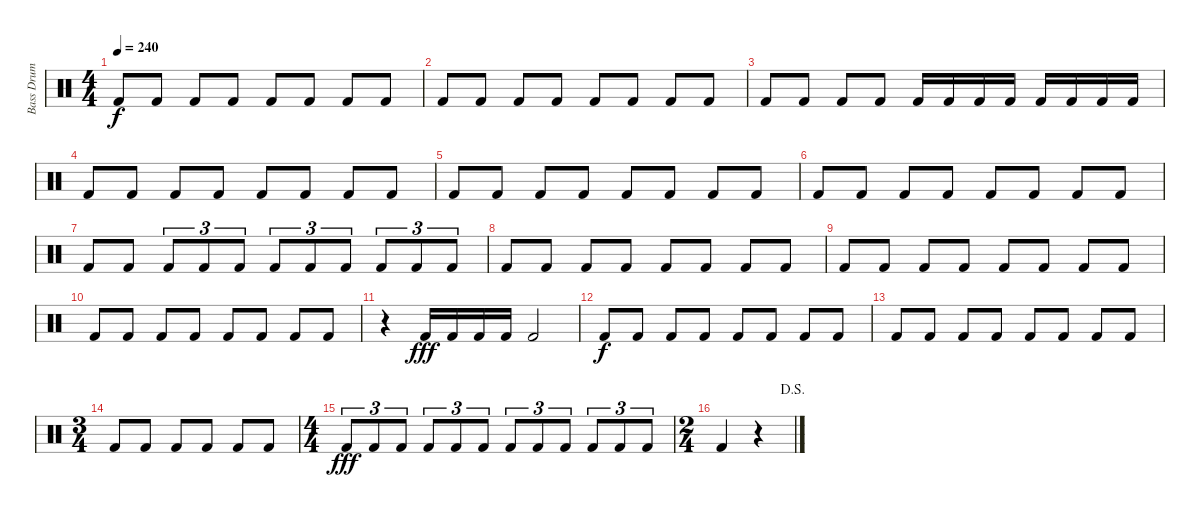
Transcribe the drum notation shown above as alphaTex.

\track ("Bass Drum" "Bass Drum") {instrument percussion}
\staff {score}
\articulation defaults
\ts (4 4)
\tempo 240
\clef neutral
\ks c "Kick (hit) 2".8{dy f} "Kick (hit) 2".8 "Kick (hit) 2".8 "Kick (hit) 2".8 "Kick (hit) 2".8 "Kick (hit) 2".8 "Kick (hit) 2".8 "Kick (hit) 2".8
|
"Kick (hit) 2".8 "Kick (hit) 2".8 "Kick (hit) 2".8 "Kick (hit) 2".8 "Kick (hit) 2".8 "Kick (hit) 2".8 "Kick (hit) 2".8 "Kick (hit) 2".8 |
"Kick (hit) 2".8 "Kick (hit) 2".8 "Kick (hit) 2".8 "Kick (hit) 2".8 "Kick (hit) 2".16 "Kick (hit) 2".16 "Kick (hit) 2".16 "Kick (hit) 2".16 "Kick (hit) 2".16 "Kick (hit) 2".16 "Kick (hit) 2".16 "Kick (hit) 2".16 |
"Kick (hit) 2".8 "Kick (hit) 2".8 "Kick (hit) 2".8 "Kick (hit) 2".8 "Kick (hit) 2".8 "Kick (hit) 2".8 "Kick (hit) 2".8 "Kick (hit) 2".8 |
"Kick (hit) 2".8 "Kick (hit) 2".8 "Kick (hit) 2".8 "Kick (hit) 2".8 "Kick (hit) 2".8 "Kick (hit) 2".8 "Kick (hit) 2".8 "Kick (hit) 2".8 |
"Kick (hit) 2".8 "Kick (hit) 2".8 "Kick (hit) 2".8 "Kick (hit) 2".8 "Kick (hit) 2".8 "Kick (hit) 2".8 "Kick (hit) 2".8 "Kick (hit) 2".8 |
"Kick (hit) 2".8 "Kick (hit) 2".8 "Kick (hit) 2".8{tu (3 2)} "Kick (hit) 2".8{tu (3 2)} "Kick (hit) 2".8{tu (3 2)} "Kick (hit) 2".8{tu (3 2)} "Kick (hit) 2".8{tu (3 2)} "Kick (hit) 2".8{tu (3 2)} "Kick (hit) 2".8{tu (3 2)} "Kick (hit) 2".8{tu (3 2)} "Kick (hit) 2".8{tu (3 2)} |
"Kick (hit) 2".8 "Kick (hit) 2".8 "Kick (hit) 2".8 "Kick (hit) 2".8 "Kick (hit) 2".8 "Kick (hit) 2".8 "Kick (hit) 2".8 "Kick (hit) 2".8 |
"Kick (hit) 2".8 "Kick (hit) 2".8 "Kick (hit) 2".8 "Kick (hit) 2".8 "Kick (hit) 2".8 "Kick (hit) 2".8 "Kick (hit) 2".8 "Kick (hit) 2".8 |
"Kick (hit) 2".8 "Kick (hit) 2".8 "Kick (hit) 2".8 "Kick (hit) 2".8 "Kick (hit) 2".8 "Kick (hit) 2".8 "Kick (hit) 2".8 "Kick (hit) 2".8 |
r.4 "Kick (hit) 2".16{dy fff} "Kick (hit) 2".16 "Kick (hit) 2".16 "Kick (hit) 2".16 "Kick (hit) 2".2 |
"Kick (hit) 2".8{dy f} "Kick (hit) 2".8 "Kick (hit) 2".8 "Kick (hit) 2".8 "Kick (hit) 2".8 "Kick (hit) 2".8 "Kick (hit) 2".8 "Kick (hit) 2".8 |
"Kick (hit) 2".8 "Kick (hit) 2".8 "Kick (hit) 2".8 "Kick (hit) 2".8 "Kick (hit) 2".8 "Kick (hit) 2".8 "Kick (hit) 2".8 "Kick (hit) 2".8 |
\ts (3 4)
"Kick (hit) 2".8 "Kick (hit) 2".8 "Kick (hit) 2".8 "Kick (hit) 2".8 "Kick (hit) 2".8 "Kick (hit) 2".8 |
\ts (4 4)
"Kick (hit) 2".8{tu (3 2) dy fff} "Kick (hit) 2".8{tu (3 2)} "Kick (hit) 2".8{tu (3 2)} "Kick (hit) 2".8{tu (3 2)} "Kick (hit) 2".8{tu (3 2)} "Kick (hit) 2".8{tu (3 2)} "Kick (hit) 2".8{tu (3 2)} "Kick (hit) 2".8{tu (3 2)} "Kick (hit) 2".8{tu (3 2)} "Kick (hit) 2".8{tu (3 2)} "Kick (hit) 2".8{tu (3 2)} "Kick (hit) 2".8{tu (3 2)} |
\ts (2 4)
\jump dalsegno "Kick (hit) 2".4
r.4
